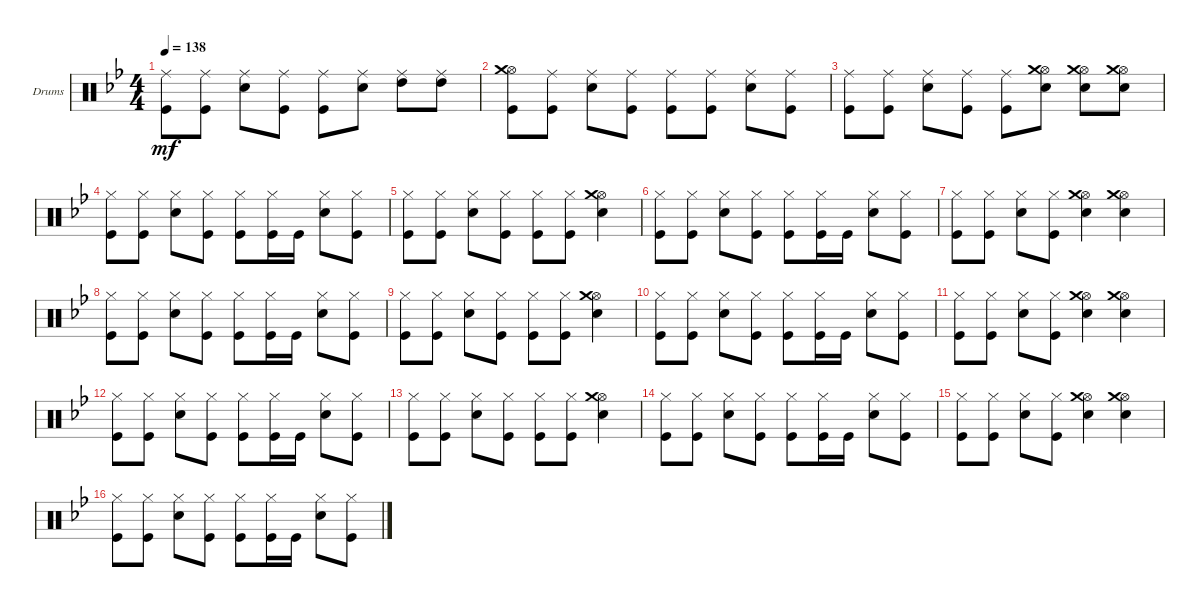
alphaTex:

\defaultSystemsLayout 4
\bracketExtendMode groupsimilarinstruments
\firstSystemTrackNameOrientation horizontal
\otherSystemsTrackNameOrientation horizontal
\track ("Drumkit" "Drums") {instrument percussion}
\staff {score}
\articulation defaults
\ts (4 4)
\tempo 138
\clef neutral
\ks gminor
("Ride (middle)" "Kick (hit)").8{dy mf} ("Ride (middle)" "Kick (hit)").8 ("Ride (middle)" "Snare (hit) 2").8 ("Ride (middle)" "Kick (hit)").8 ("Ride (middle)" "Kick (hit)").8 ("Ride (middle)" "Snare (hit) 2").8 ("Ride (middle)" "High Tom (hit)").8 ("Ride (middle)" "High Tom (hit)").8 |
("Hi-Hat (open)" "Crash medium (hit)" "Kick (hit)").8 ("Ride (middle)" "Kick (hit)").8 ("Ride (middle)" "Snare (hit) 2").8 ("Ride (middle)" "Kick (hit)").8 ("Ride (middle)" "Kick (hit)").8 ("Ride (middle)" "Kick (hit)").8 ("Ride (middle)" "Snare (hit) 2").8 ("Ride (middle)" "Kick (hit)").8 |
("Ride (middle)" "Kick (hit)").8 ("Ride (middle)" "Kick (hit)").8 ("Ride (middle)" "Snare (hit) 2").8 ("Ride (middle)" "Kick (hit)").8 ("Ride (middle)" "Kick (hit)").8 ("Snare (hit) 2" "Hi-Hat (open)" "Crash medium (hit)").8 ("Hi-Hat (open)" "Crash medium (hit)" "Snare (hit) 2").8 ("Hi-Hat (open)" "Crash medium (hit)" "Snare (hit) 2").8 |
("Hi-Hat (closed)" "Kick (hit)").8 ("Hi-Hat (closed)" "Kick (hit)").8 ("Hi-Hat (closed)" "Snare (hit) 2").8 ("Hi-Hat (closed)" "Kick (hit)").8 ("Hi-Hat (closed)" "Kick (hit)").8 ("Hi-Hat (closed)" "Kick (hit)").16 "Kick (hit)".16 ("Hi-Hat (closed)" "Snare (hit) 2").8 ("Hi-Hat (closed)" "Kick (hit)").8 |
("Hi-Hat (closed)" "Kick (hit)").8 ("Hi-Hat (closed)" "Kick (hit)").8 ("Hi-Hat (closed)" "Snare (hit) 2").8 ("Hi-Hat (closed)" "Kick (hit)").8 ("Hi-Hat (closed)" "Kick (hit)").8 ("Hi-Hat (closed)" "Kick (hit)").8 ("Hi-Hat (open)" "Crash medium (hit)" "Snare (hit) 2").4 |
("Hi-Hat (closed)" "Kick (hit)").8 ("Hi-Hat (closed)" "Kick (hit)").8 ("Hi-Hat (closed)" "Snare (hit) 2").8 ("Hi-Hat (closed)" "Kick (hit)").8 ("Hi-Hat (closed)" "Kick (hit)").8 ("Hi-Hat (closed)" "Kick (hit)").16 "Kick (hit)".16 ("Hi-Hat (closed)" "Snare (hit) 2").8 ("Hi-Hat (closed)" "Kick (hit)").8 |
("Hi-Hat (closed)" "Kick (hit)").8 ("Hi-Hat (closed)" "Kick (hit)").8 ("Hi-Hat (closed)" "Snare (hit) 2").8 ("Hi-Hat (closed)" "Kick (hit)").8 ("Hi-Hat (open)" "Crash medium (hit)" "Snare (hit) 2").4 ("Hi-Hat (open)" "Crash medium (hit)" "Snare (hit) 2").4 |
("Hi-Hat (closed)" "Kick (hit)").8 ("Hi-Hat (closed)" "Kick (hit)").8 ("Hi-Hat (closed)" "Snare (hit) 2").8 ("Hi-Hat (closed)" "Kick (hit)").8 ("Hi-Hat (closed)" "Kick (hit)").8 ("Hi-Hat (closed)" "Kick (hit)").16 "Kick (hit)".16 ("Hi-Hat (closed)" "Snare (hit) 2").8 ("Hi-Hat (closed)" "Kick (hit)").8 |
("Hi-Hat (closed)" "Kick (hit)").8 ("Hi-Hat (closed)" "Kick (hit)").8 ("Hi-Hat (closed)" "Snare (hit) 2").8 ("Hi-Hat (closed)" "Kick (hit)").8 ("Hi-Hat (closed)" "Kick (hit)").8 ("Hi-Hat (closed)" "Kick (hit)").8 ("Hi-Hat (open)" "Crash medium (hit)" "Snare (hit) 2").4 |
("Hi-Hat (closed)" "Kick (hit)").8 ("Hi-Hat (closed)" "Kick (hit)").8 ("Hi-Hat (closed)" "Snare (hit) 2").8 ("Hi-Hat (closed)" "Kick (hit)").8 ("Hi-Hat (closed)" "Kick (hit)").8 ("Hi-Hat (closed)" "Kick (hit)").16 "Kick (hit)".16 ("Hi-Hat (closed)" "Snare (hit) 2").8 ("Hi-Hat (closed)" "Kick (hit)").8 |
("Hi-Hat (closed)" "Kick (hit)").8 ("Hi-Hat (closed)" "Kick (hit)").8 ("Hi-Hat (closed)" "Snare (hit) 2").8 ("Hi-Hat (closed)" "Kick (hit)").8 ("Hi-Hat (open)" "Crash medium (hit)" "Snare (hit) 2").4 ("Hi-Hat (open)" "Crash medium (hit)" "Snare (hit) 2").4 |
("Hi-Hat (closed)" "Kick (hit)").8 ("Hi-Hat (closed)" "Kick (hit)").8 ("Hi-Hat (closed)" "Snare (hit) 2").8 ("Hi-Hat (closed)" "Kick (hit)").8 ("Hi-Hat (closed)" "Kick (hit)").8 ("Hi-Hat (closed)" "Kick (hit)").16 "Kick (hit)".16 ("Hi-Hat (closed)" "Snare (hit) 2").8 ("Hi-Hat (closed)" "Kick (hit)").8 |
("Hi-Hat (closed)" "Kick (hit)").8 ("Hi-Hat (closed)" "Kick (hit)").8 ("Hi-Hat (closed)" "Snare (hit) 2").8 ("Hi-Hat (closed)" "Kick (hit)").8 ("Hi-Hat (closed)" "Kick (hit)").8 ("Hi-Hat (closed)" "Kick (hit)").8 ("Hi-Hat (open)" "Crash medium (hit)" "Snare (hit) 2").4 |
("Hi-Hat (closed)" "Kick (hit)").8 ("Hi-Hat (closed)" "Kick (hit)").8 ("Hi-Hat (closed)" "Snare (hit) 2").8 ("Hi-Hat (closed)" "Kick (hit)").8 ("Hi-Hat (closed)" "Kick (hit)").8 ("Hi-Hat (closed)" "Kick (hit)").16 "Kick (hit)".16 ("Hi-Hat (closed)" "Snare (hit) 2").8 ("Hi-Hat (closed)" "Kick (hit)").8 |
("Hi-Hat (closed)" "Kick (hit)").8 ("Hi-Hat (closed)" "Kick (hit)").8 ("Hi-Hat (closed)" "Snare (hit) 2").8 ("Hi-Hat (closed)" "Kick (hit)").8 ("Hi-Hat (open)" "Crash medium (hit)" "Snare (hit) 2").4 ("Hi-Hat (open)" "Crash medium (hit)" "Snare (hit) 2").4 |
("Hi-Hat (closed)" "Kick (hit)").8 ("Hi-Hat (closed)" "Kick (hit)").8 ("Hi-Hat (closed)" "Snare (hit) 2").8 ("Hi-Hat (closed)" "Kick (hit)").8 ("Hi-Hat (closed)" "Kick (hit)").8 ("Hi-Hat (closed)" "Kick (hit)").16 "Kick (hit)".16 ("Hi-Hat (closed)" "Snare (hit) 2").8 ("Hi-Hat (closed)" "Kick (hit)").8
